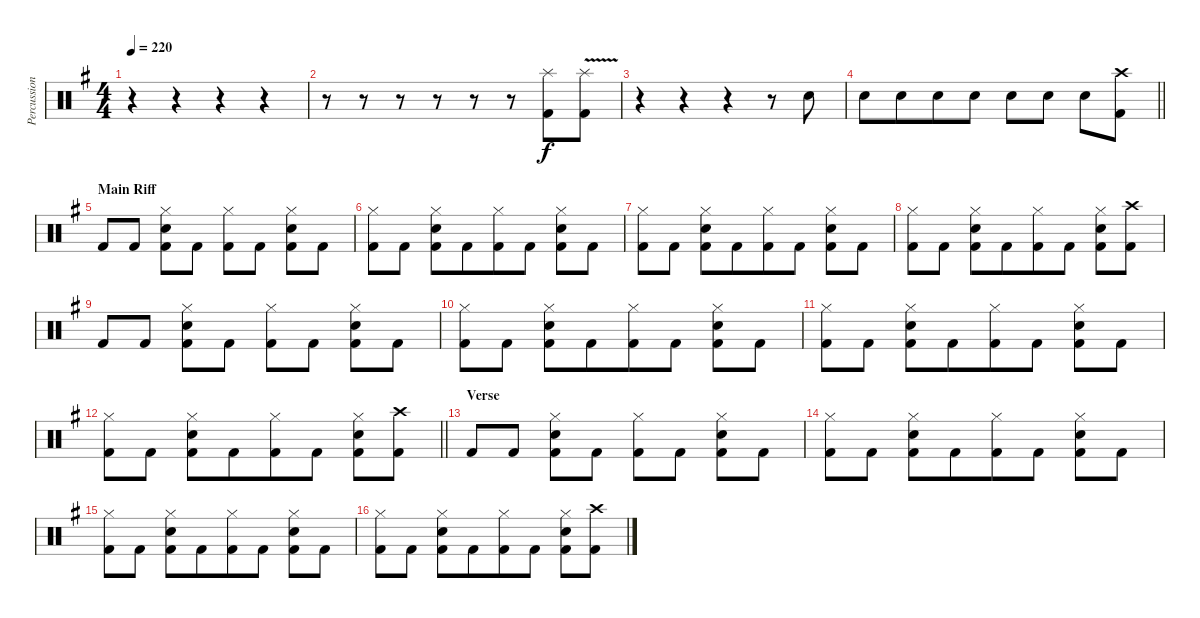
\track ("Percussion" "Percussion") {instrument percussion}
\staff {score}
\articulation defaults
\ts (4 4)
\tempo 220
\clef neutral
\ks eminor
r.4{dy f beam merge} r.4 r.4{beam merge} r.4 |
r.8{beam merge} r.8{beam merge} r.8 r.8 r.8 r.8 ("Splash (hit)" "Kick (hit) 2").8{beam merge} ("Splash (hit)" "Kick (hit) 2"{v}).8 |
r.4{beam merge} r.4 r.4{beam merge} r.8 "Snare (hit) 2".8 |
\barLineRight lightlight "Snare (hit) 2".8 "Snare (hit) 2".8{beam merge} "Snare (hit) 2".8{beam merge} "Snare (hit) 2".8 "Snare (hit) 2".8 "Snare (hit) 2".8 "Snare (hit) 2".8{beam merge}
("Crash high (hit)" "Kick (hit) 2").8 |
\section ("" "Main Riff")
"Kick (hit) 2".8{beam merge} "Kick (hit) 2".8 ("Hi-Hat (closed)" "Snare (hit) 2" "Kick (hit) 2").8 "Kick (hit) 2".8 ("Hi-Hat (closed)" "Kick (hit) 2").8 "Kick (hit) 2".8 ("Hi-Hat (closed)" "Snare (hit) 2" "Kick (hit) 2").8{beam merge} "Kick (hit) 2".8 |
("Hi-Hat (closed)" "Kick (hit) 2").8 "Kick (hit) 2".8 ("Hi-Hat (closed)" "Snare (hit) 2" "Kick (hit) 2").8{beam merge} "Kick (hit) 2".8{beam merge} ("Hi-Hat (closed)" "Kick (hit) 2").8{beam merge} "Kick (hit) 2".8 ("Hi-Hat (closed)" "Snare (hit) 2" "Kick (hit) 2").8 "Kick (hit) 2".8 |
("Hi-Hat (closed)" "Kick (hit) 2").8 "Kick (hit) 2".8 ("Hi-Hat (closed)" "Snare (hit) 2" "Kick (hit) 2").8{beam merge} "Kick (hit) 2".8{beam merge} ("Hi-Hat (closed)" "Kick (hit) 2").8{beam merge} "Kick (hit) 2".8 ("Hi-Hat (closed)" "Snare (hit) 2" "Kick (hit) 2").8 "Kick (hit) 2".8 |
("Hi-Hat (closed)" "Kick (hit) 2").8 "Kick (hit) 2".8 ("Hi-Hat (closed)" "Snare (hit) 2" "Kick (hit) 2").8{beam merge} "Kick (hit) 2".8{beam merge} ("Hi-Hat (closed)" "Kick (hit) 2").8{beam merge} "Kick (hit) 2".8 ("Hi-Hat (closed)" "Snare (hit) 2" "Kick (hit) 2").8 ("Crash high (hit)" "Kick (hit) 2").8 |
"Kick (hit) 2".8{beam merge} "Kick (hit) 2".8 ("Hi-Hat (closed)" "Snare (hit) 2" "Kick (hit) 2").8 "Kick (hit) 2".8 ("Hi-Hat (closed)" "Kick (hit) 2").8 "Kick (hit) 2".8 ("Hi-Hat (closed)" "Snare (hit) 2" "Kick (hit) 2").8{beam merge} "Kick (hit) 2".8 |
("Hi-Hat (closed)" "Kick (hit) 2").8 "Kick (hit) 2".8 ("Hi-Hat (closed)" "Snare (hit) 2" "Kick (hit) 2").8{beam merge} "Kick (hit) 2".8{beam merge} ("Hi-Hat (closed)" "Kick (hit) 2").8{beam merge} "Kick (hit) 2".8 ("Hi-Hat (closed)" "Snare (hit) 2" "Kick (hit) 2").8 "Kick (hit) 2".8 |
("Hi-Hat (closed)" "Kick (hit) 2").8 "Kick (hit) 2".8 ("Hi-Hat (closed)" "Snare (hit) 2" "Kick (hit) 2").8{beam merge} "Kick (hit) 2".8{beam merge} ("Hi-Hat (closed)" "Kick (hit) 2").8{beam merge} "Kick (hit) 2".8 ("Hi-Hat (closed)" "Snare (hit) 2" "Kick (hit) 2").8 "Kick (hit) 2".8 |
\barLineRight lightlight
("Hi-Hat (closed)" "Kick (hit) 2").8 "Kick (hit) 2".8 ("Hi-Hat (closed)" "Snare (hit) 2" "Kick (hit) 2").8{beam merge} "Kick (hit) 2".8{beam merge} ("Hi-Hat (closed)" "Kick (hit) 2").8{beam merge} "Kick (hit) 2".8 ("Hi-Hat (closed)" "Snare (hit) 2" "Kick (hit) 2").8 ("Crash high (hit)" "Kick (hit) 2").8 |
\section ("" "Verse")
"Kick (hit) 2".8{beam merge} "Kick (hit) 2".8 ("Hi-Hat (closed)" "Snare (hit) 2" "Kick (hit) 2").8 "Kick (hit) 2".8 ("Hi-Hat (closed)" "Kick (hit) 2").8 "Kick (hit) 2".8 ("Hi-Hat (closed)" "Snare (hit) 2" "Kick (hit) 2").8{beam merge} "Kick (hit) 2".8 |
("Hi-Hat (closed)" "Kick (hit) 2").8 "Kick (hit) 2".8 ("Hi-Hat (closed)" "Snare (hit) 2" "Kick (hit) 2").8{beam merge} "Kick (hit) 2".8{beam merge} ("Hi-Hat (closed)" "Kick (hit) 2").8{beam merge} "Kick (hit) 2".8 ("Hi-Hat (closed)" "Snare (hit) 2" "Kick (hit) 2").8 "Kick (hit) 2".8 |
("Hi-Hat (closed)" "Kick (hit) 2").8 "Kick (hit) 2".8 ("Hi-Hat (closed)" "Snare (hit) 2" "Kick (hit) 2").8{beam merge} "Kick (hit) 2".8{beam merge} ("Hi-Hat (closed)" "Kick (hit) 2").8{beam merge} "Kick (hit) 2".8 ("Hi-Hat (closed)" "Snare (hit) 2" "Kick (hit) 2").8 "Kick (hit) 2".8 |
("Hi-Hat (closed)" "Kick (hit) 2").8 "Kick (hit) 2".8 ("Hi-Hat (closed)" "Snare (hit) 2" "Kick (hit) 2").8{beam merge} "Kick (hit) 2".8{beam merge} ("Hi-Hat (closed)" "Kick (hit) 2").8{beam merge} "Kick (hit) 2".8 ("Hi-Hat (closed)" "Snare (hit) 2" "Kick (hit) 2").8 ("Crash high (hit)" "Kick (hit) 2").8
